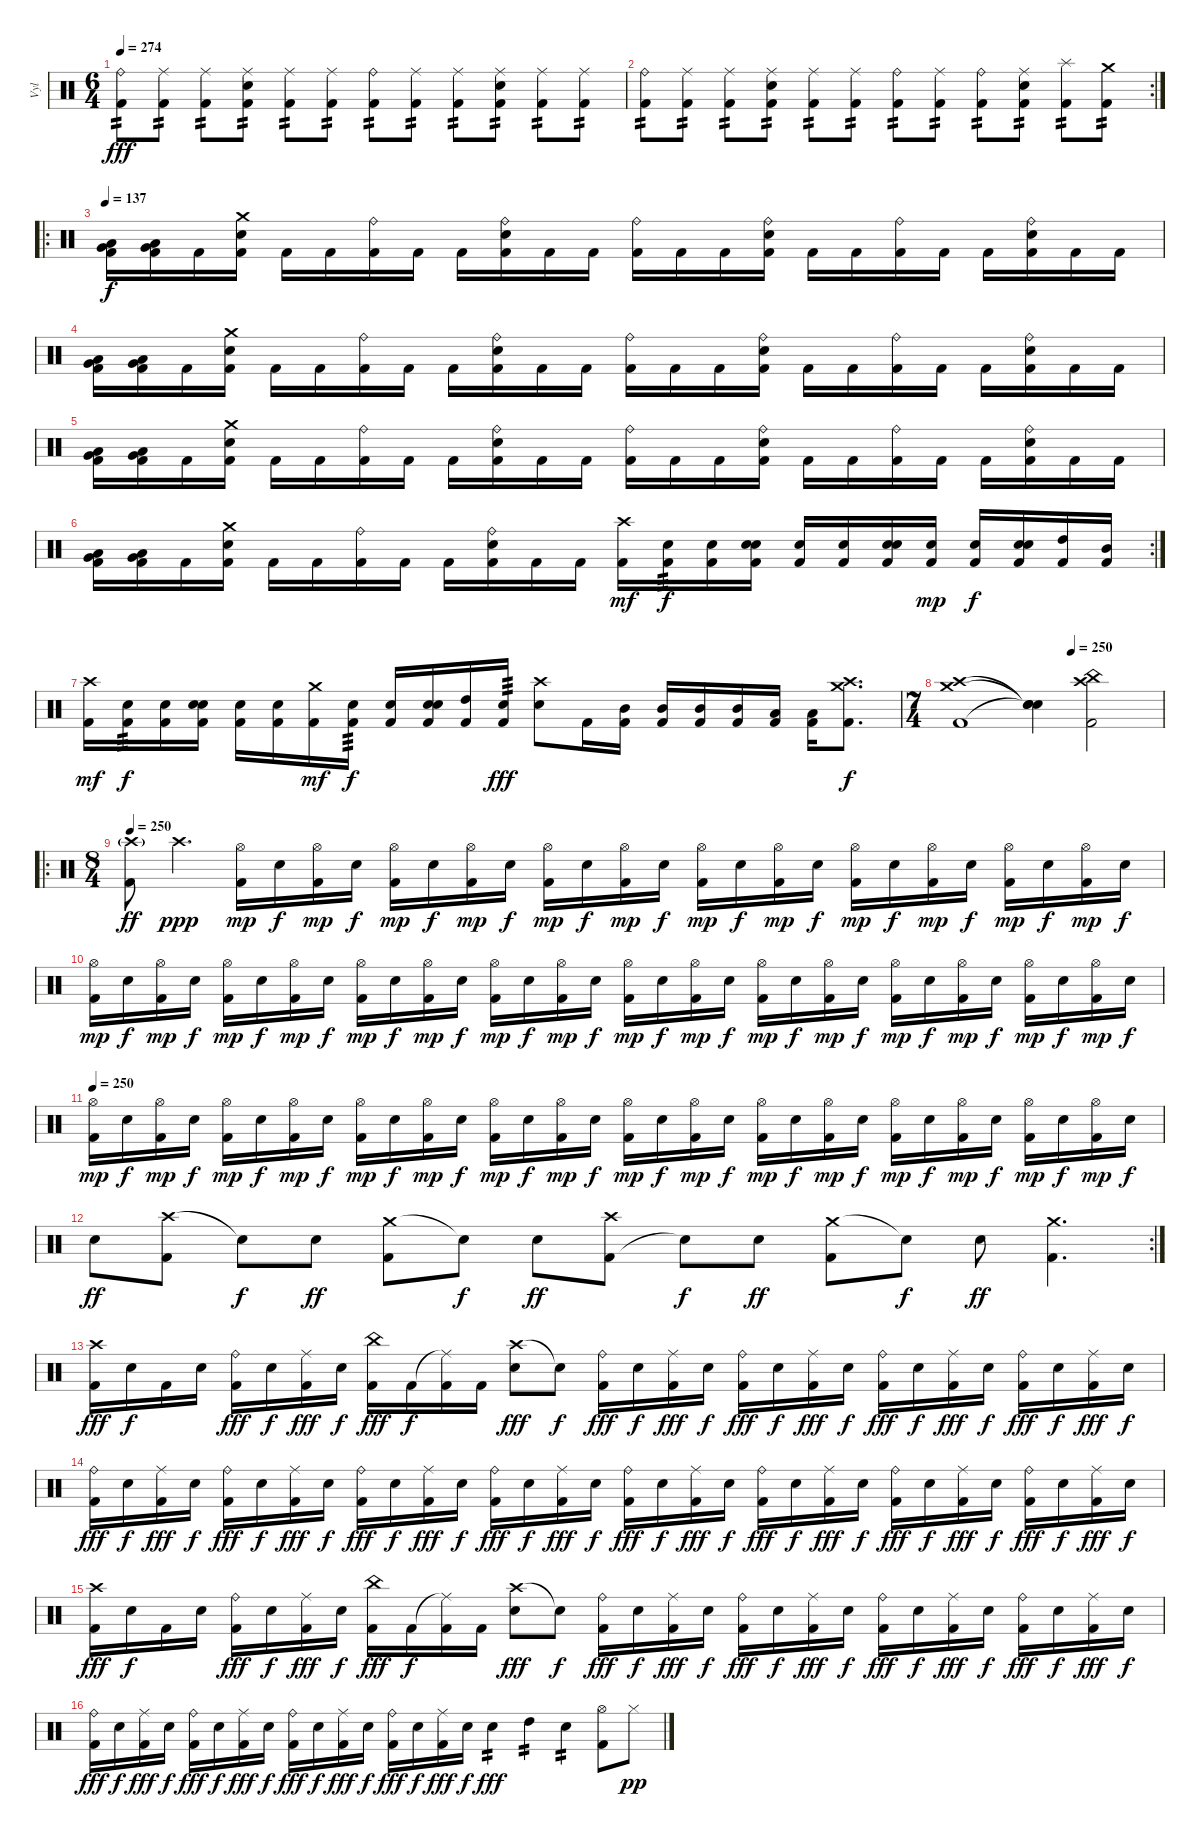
\track ("Vyl" "Vyl") {instrument percussion}
\staff {score}
\articulation defaults
\ts (6 4)
\tempo 274
\clef neutral
\ks c
("Ride (bell)" "Kick (hit) 2").8{tp 2 dy fff} ("Ride (middle)" "Kick (hit) 2").8{tp 2} ("Ride (middle)" "Kick (hit) 2").8{tp 2} ("Ride (middle)" "Snare (hit) 2" "Kick (hit) 2").8{tp 2} ("Ride (middle)" "Kick (hit) 2").8{tp 2} ("Ride (middle)" "Kick (hit) 2").8{tp 2} ("Ride (bell)" "Kick (hit) 2").8{tp 2} ("Ride (middle)" "Kick (hit) 2").8{tp 2} ("Ride (middle)" "Kick (hit) 2").8{tp 2} ("Ride (middle)" "Snare (hit) 2" "Kick (hit) 2").8{tp 2} ("Ride (middle)" "Kick (hit) 2").8{tp 2} ("Ride (middle)" "Kick (hit) 2").8{tp 2} |
\rc 2
("Ride (bell)" "Kick (hit) 2").8{tp 2} ("Ride (middle)" "Kick (hit) 2").8{tp 2} ("Ride (middle)" "Kick (hit) 2").8{tp 2} ("Ride (middle)" "Snare (hit) 2" "Kick (hit) 2").8{tp 2} ("Ride (middle)" "Kick (hit) 2").8{tp 2} ("Ride (middle)" "Kick (hit) 2").8{tp 2} ("Ride (bell)" "Kick (hit) 2").8{tp 2} ("Ride (middle)" "Kick (hit) 2").8{tp 2} ("Ride (bell)" "Kick (hit) 2").8{tp 2} ("Ride (middle)" "Snare (hit) 2" "Kick (hit) 2").8{tp 2} ("Splash (hit)" "Kick (hit) 2").8{tp 2} ("Crash medium (hit)" "Kick (hit) 2").8{tp 2} |
\ro
\tempo 137
("Low Tom (hit)" "Very Low Tom (hit)" "Kick (hit) 2").16{dy f} ("Low Tom (hit)" "Very Low Tom (hit)" "Kick (hit) 2").16 "Kick (hit) 2".16 ("Crash medium (hit)" "Snare (hit) 2" "Kick (hit) 2").16 "Kick (hit) 2".16 "Kick (hit) 2".16 ("Ride (bell)" "Kick (hit) 2").16 "Kick (hit) 2".16 "Kick (hit) 2".16 ("Ride (bell)" "Snare (hit) 2" "Kick (hit) 2").16 "Kick (hit) 2".16 "Kick (hit) 2".16 ("Ride (bell)" "Kick (hit) 2").16 "Kick (hit) 2".16 "Kick (hit) 2".16 ("Ride (bell)" "Snare (hit) 2" "Kick (hit) 2").16 "Kick (hit) 2".16 "Kick (hit) 2".16 ("Ride (bell)" "Kick (hit) 2").16 "Kick (hit) 2".16 "Kick (hit) 2".16 ("Ride (bell)" "Snare (hit) 2" "Kick (hit) 2").16 "Kick (hit) 2".16 "Kick (hit) 2".16 |
("Low Tom (hit)" "Very Low Tom (hit)" "Kick (hit) 2").16 ("Low Tom (hit)" "Very Low Tom (hit)" "Kick (hit) 2").16 "Kick (hit) 2".16 ("Crash medium (hit)" "Snare (hit) 2" "Kick (hit) 2").16 "Kick (hit) 2".16 "Kick (hit) 2".16 ("Ride (bell)" "Kick (hit) 2").16 "Kick (hit) 2".16 "Kick (hit) 2".16 ("Ride (bell)" "Snare (hit) 2" "Kick (hit) 2").16 "Kick (hit) 2".16 "Kick (hit) 2".16 ("Ride (bell)" "Kick (hit) 2").16 "Kick (hit) 2".16 "Kick (hit) 2".16 ("Ride (bell)" "Snare (hit) 2" "Kick (hit) 2").16 "Kick (hit) 2".16 "Kick (hit) 2".16 ("Ride (bell)" "Kick (hit) 2").16 "Kick (hit) 2".16 "Kick (hit) 2".16 ("Ride (bell)" "Snare (hit) 2" "Kick (hit) 2").16 "Kick (hit) 2".16 "Kick (hit) 2".16 |
("Low Tom (hit)" "Very Low Tom (hit)" "Kick (hit) 2").16 ("Low Tom (hit)" "Very Low Tom (hit)" "Kick (hit) 2").16 "Kick (hit) 2".16 ("Crash medium (hit)" "Snare (hit) 2" "Kick (hit) 2").16 "Kick (hit) 2".16 "Kick (hit) 2".16 ("Ride (bell)" "Kick (hit) 2").16 "Kick (hit) 2".16 "Kick (hit) 2".16 ("Ride (bell)" "Snare (hit) 2" "Kick (hit) 2").16 "Kick (hit) 2".16 "Kick (hit) 2".16 ("Ride (bell)" "Kick (hit) 2").16 "Kick (hit) 2".16 "Kick (hit) 2".16 ("Ride (bell)" "Snare (hit) 2" "Kick (hit) 2").16 "Kick (hit) 2".16 "Kick (hit) 2".16 ("Ride (bell)" "Kick (hit) 2").16 "Kick (hit) 2".16 "Kick (hit) 2".16 ("Ride (bell)" "Snare (hit) 2" "Kick (hit) 2").16 "Kick (hit) 2".16 "Kick (hit) 2".16 |
\rc 2
("Low Tom (hit)" "Very Low Tom (hit)" "Kick (hit) 2").16 ("Low Tom (hit)" "Very Low Tom (hit)" "Kick (hit) 2").16 "Kick (hit) 2".16 ("Crash medium (hit)" "Snare (hit) 2" "Kick (hit) 2").16 "Kick (hit) 2".16 "Kick (hit) 2".16 ("Ride (bell)" "Kick (hit) 2").16 "Kick (hit) 2".16 "Kick (hit) 2".16 ("Ride (bell)" "Snare (hit) 2" "Kick (hit) 2").16 "Kick (hit) 2".16 "Kick (hit) 2".16 ("Crash high (hit)" "Kick (hit) 2").16{dy mf} ("Snare (hit) 2" "Kick (hit) 2").16{tp 3 dy f} ("Snare (hit) 2" "Kick (hit) 2").16 ("Snare (hit)" "Snare (hit) 2" "Kick (hit) 2").16 ("Snare (hit) 2" "Kick (hit) 2").16 ("Snare (hit) 2" "Kick (hit) 2").16 ("Snare (hit)" "Snare (hit) 2" "Kick (hit) 2").16 ("Snare (hit) 2" "Kick (hit) 2").16{dy mp} ("Snare (hit) 2" "Kick (hit) 2").16{dy f} ("Snare (hit)" "Snare (hit) 2" "Kick (hit) 2").16 ("High Tom (hit)" "Kick (hit) 2").16 ("Mid Tom (hit)" "Kick (hit) 2").16 |
("Crash high (hit)" "Kick (hit) 2").16{dy mf} ("Snare (hit) 2" "Kick (hit) 2").16{tp 3 dy f} ("Snare (hit) 2" "Kick (hit) 2").16 ("Snare (hit)" "Snare (hit) 2" "Kick (hit) 2").16 ("Snare (hit) 2" "Kick (hit) 2").16 ("Snare (hit) 2" "Kick (hit) 2").16 ("Crash medium (hit)" "Kick (hit) 2").16{dy mf} ("Snare (hit) 2" "Kick (hit) 2").16{tp 3 dy f} ("Snare (hit) 2" "Kick (hit) 2").16 ("Snare (hit)" "Snare (hit) 2" "Kick (hit) 2").16 ("High Tom (hit)" "Kick (hit) 2").16 ("Snare (hit)" "Kick (hit) 2").16{tp 3 dy fff} ("Crash high (hit)" "Snare (hit) 2").8 "Kick (hit) 2".16 ("Mid Tom (hit)" "Kick (hit) 2").16 ("Mid Tom (hit)" "Kick (hit) 2").16 ("Mid Tom (hit)" "Kick (hit) 2").16 ("Mid Tom (hit)" "Kick (hit) 2").16 ("Low Tom (hit)" "Kick (hit) 2").16 ("Low Tom (hit)" "Kick (hit) 2").16 ("Crash medium (hit)" "Crash high (hit)" "Kick (hit) 2").8{d dy f} |
\ts (7 4)
\tempo (250 0.5714285714285714)
("Crash medium (hit)" "Crash high (hit)" "Kick (hit) 2").1 ("Snare (hit)"{t} "Snare (hit)"{t} "Snare (hit)"{t}).4 ("China (hit)" "Crash high (hit)" "Kick (hit) 2").2 |
\ro
\ts (8 4)
\tempo 250
("Crash high (hit)"{g} "Kick (hit) 2").8{dy ff} "Crash high (hit)".4{d dy ppp} ("Hi-Hat (open)" "Kick (hit) 2").16{dy mp} "Snare (hit) 2".16{dy f} ("Hi-Hat (open)" "Kick (hit) 2").16{dy mp} "Snare (hit) 2".16{dy f} ("Hi-Hat (open)" "Kick (hit) 2").16{dy mp} "Snare (hit) 2".16{dy f} ("Hi-Hat (open)" "Kick (hit) 2").16{dy mp} "Snare (hit) 2".16{dy f} ("Hi-Hat (open)" "Kick (hit) 2").16{dy mp} "Snare (hit) 2".16{dy f} ("Hi-Hat (open)" "Kick (hit) 2").16{dy mp} "Snare (hit) 2".16{dy f} ("Hi-Hat (open)" "Kick (hit) 2").16{dy mp} "Snare (hit) 2".16{dy f} ("Hi-Hat (open)" "Kick (hit) 2").16{dy mp} "Snare (hit) 2".16{dy f} ("Hi-Hat (open)" "Kick (hit) 2").16{dy mp} "Snare (hit) 2".16{dy f} ("Hi-Hat (open)" "Kick (hit) 2").16{dy mp} "Snare (hit) 2".16{dy f} ("Hi-Hat (open)" "Kick (hit) 2").16{dy mp} "Snare (hit) 2".16{dy f} ("Hi-Hat (open)" "Kick (hit) 2").16{dy mp} "Snare (hit) 2".16{dy f} |
("Hi-Hat (open)" "Kick (hit) 2").16{dy mp} "Snare (hit) 2".16{dy f} ("Hi-Hat (open)" "Kick (hit) 2").16{dy mp} "Snare (hit) 2".16{dy f} ("Hi-Hat (open)" "Kick (hit) 2").16{dy mp} "Snare (hit) 2".16{dy f} ("Hi-Hat (open)" "Kick (hit) 2").16{dy mp} "Snare (hit) 2".16{dy f} ("Hi-Hat (open)" "Kick (hit) 2").16{dy mp} "Snare (hit) 2".16{dy f} ("Hi-Hat (open)" "Kick (hit) 2").16{dy mp} "Snare (hit) 2".16{dy f} ("Hi-Hat (open)" "Kick (hit) 2").16{dy mp} "Snare (hit) 2".16{dy f} ("Hi-Hat (open)" "Kick (hit) 2").16{dy mp} "Snare (hit) 2".16{dy f} ("Hi-Hat (open)" "Kick (hit) 2").16{dy mp} "Snare (hit) 2".16{dy f} ("Hi-Hat (open)" "Kick (hit) 2").16{dy mp} "Snare (hit) 2".16{dy f} ("Hi-Hat (open)" "Kick (hit) 2").16{dy mp} "Snare (hit) 2".16{dy f} ("Hi-Hat (open)" "Kick (hit) 2").16{dy mp} "Snare (hit) 2".16{dy f} ("Hi-Hat (open)" "Kick (hit) 2").16{dy mp} "Snare (hit) 2".16{dy f} ("Hi-Hat (open)" "Kick (hit) 2").16{dy mp} "Snare (hit) 2".16{dy f} ("Hi-Hat (open)" "Kick (hit) 2").16{dy mp} "Snare (hit) 2".16{dy f} ("Hi-Hat (open)" "Kick (hit) 2").16{dy mp} "Snare (hit) 2".16{dy f} |
\tempo 250
("Hi-Hat (open)" "Kick (hit) 2").16{dy mp} "Snare (hit) 2".16{dy f} ("Hi-Hat (open)" "Kick (hit) 2").16{dy mp} "Snare (hit) 2".16{dy f} ("Hi-Hat (open)" "Kick (hit) 2").16{dy mp} "Snare (hit) 2".16{dy f} ("Hi-Hat (open)" "Kick (hit) 2").16{dy mp} "Snare (hit) 2".16{dy f} ("Hi-Hat (open)" "Kick (hit) 2").16{dy mp} "Snare (hit) 2".16{dy f} ("Hi-Hat (open)" "Kick (hit) 2").16{dy mp} "Snare (hit) 2".16{dy f} ("Hi-Hat (open)" "Kick (hit) 2").16{dy mp} "Snare (hit) 2".16{dy f} ("Hi-Hat (open)" "Kick (hit) 2").16{dy mp} "Snare (hit) 2".16{dy f} ("Hi-Hat (open)" "Kick (hit) 2").16{dy mp} "Snare (hit) 2".16{dy f} ("Hi-Hat (open)" "Kick (hit) 2").16{dy mp} "Snare (hit) 2".16{dy f} ("Hi-Hat (open)" "Kick (hit) 2").16{dy mp} "Snare (hit) 2".16{dy f} ("Hi-Hat (open)" "Kick (hit) 2").16{dy mp} "Snare (hit) 2".16{dy f} ("Hi-Hat (open)" "Kick (hit) 2").16{dy mp} "Snare (hit) 2".16{dy f} ("Hi-Hat (open)" "Kick (hit) 2").16{dy mp} "Snare (hit) 2".16{dy f} ("Hi-Hat (open)" "Kick (hit) 2").16{dy mp} "Snare (hit) 2".16{dy f} ("Hi-Hat (open)" "Kick (hit) 2").16{dy mp} "Snare (hit) 2".16{dy f} |
\rc 2 "Snare (hit) 2".8{dy ff}
("Crash high (hit)" "Kick (hit) 2").8 "Snare (hit)"{t}.8{dy f} "Snare (hit) 2".8{dy ff} ("Crash medium (hit)" "Kick (hit) 2").8 "Snare (hit)"{t}.8{dy f} "Snare (hit) 2".8{dy ff} ("Kick (hit) 2" "Crash high (hit)").8 "Snare (hit)"{t}.8{dy f} "Snare (hit) 2".8{dy ff} ("Crash medium (hit)" "Kick (hit) 2").8 "Snare (hit) 2"{t}.8{dy f} "Snare (hit) 2".8{dy ff} ("Kick (hit) 2" "Crash medium (hit)").4{d} |
("Crash high (hit)" "Kick (hit) 2").16{dy fff} "Snare (hit) 2".16{dy f} "Kick (hit) 2".16 "Snare (hit) 2".16 ("Ride (bell)" "Kick (hit) 2").16{dy fff} "Snare (hit) 2".16{dy f} ("Ride (middle)" "Kick (hit) 2").16{dy fff} "Snare (hit) 2".16{dy f} ("China (hit)" "Kick (hit) 2").16{dy fff} "Kick (hit) 2".16{dy f} ("Ride (middle)"{t} "Kick (hit) 2").16 "Kick (hit) 2".16 ("Crash high (hit)" "Snare (hit) 2").8{dy fff} "Snare (hit) 2"{t}.8{dy f} ("Ride (bell)" "Kick (hit) 2").16{dy fff} "Snare (hit) 2".16{dy f} ("Ride (middle)" "Kick (hit) 2").16{dy fff} "Snare (hit) 2".16{dy f} ("Ride (bell)" "Kick (hit) 2").16{dy fff} "Snare (hit) 2".16{dy f} ("Ride (middle)" "Kick (hit) 2").16{dy fff} "Snare (hit) 2".16{dy f} ("Ride (bell)" "Kick (hit) 2").16{dy fff} "Snare (hit) 2".16{dy f} ("Ride (middle)" "Kick (hit) 2").16{dy fff} "Snare (hit) 2".16{dy f} ("Ride (bell)" "Kick (hit) 2").16{dy fff} "Snare (hit) 2".16{dy f} ("Ride (middle)" "Kick (hit) 2").16{dy fff} "Snare (hit) 2".16{dy f} |
("Ride (bell)" "Kick (hit) 2").16{dy fff} "Snare (hit) 2".16{dy f} ("Ride (middle)" "Kick (hit) 2").16{dy fff} "Snare (hit) 2".16{dy f} ("Ride (bell)" "Kick (hit) 2").16{dy fff} "Snare (hit) 2".16{dy f} ("Ride (middle)" "Kick (hit) 2").16{dy fff} "Snare (hit) 2".16{dy f} ("Ride (bell)" "Kick (hit) 2").16{dy fff} "Snare (hit) 2".16{dy f} ("Ride (middle)" "Kick (hit) 2").16{dy fff} "Snare (hit) 2".16{dy f} ("Ride (bell)" "Kick (hit) 2").16{dy fff} "Snare (hit) 2".16{dy f} ("Ride (middle)" "Kick (hit) 2").16{dy fff} "Snare (hit) 2".16{dy f} ("Ride (bell)" "Kick (hit) 2").16{dy fff} "Snare (hit) 2".16{dy f} ("Ride (middle)" "Kick (hit) 2").16{dy fff} "Snare (hit) 2".16{dy f} ("Ride (bell)" "Kick (hit) 2").16{dy fff} "Snare (hit) 2".16{dy f} ("Ride (middle)" "Kick (hit) 2").16{dy fff} "Snare (hit) 2".16{dy f} ("Ride (bell)" "Kick (hit) 2").16{dy fff} "Snare (hit) 2".16{dy f} ("Ride (middle)" "Kick (hit) 2").16{dy fff} "Snare (hit) 2".16{dy f} ("Ride (bell)" "Kick (hit) 2").16{dy fff} "Snare (hit) 2".16{dy f} ("Ride (middle)" "Kick (hit) 2").16{dy fff} "Snare (hit) 2".16{dy f} |
("Crash high (hit)" "Kick (hit) 2").16{dy fff} "Snare (hit) 2".16{dy f} "Kick (hit) 2".16 "Snare (hit) 2".16 ("Ride (bell)" "Kick (hit) 2").16{dy fff} "Snare (hit) 2".16{dy f} ("Ride (middle)" "Kick (hit) 2").16{dy fff} "Snare (hit) 2".16{dy f} ("China (hit)" "Kick (hit) 2").16{dy fff} "Kick (hit) 2".16{dy f} ("Ride (middle)"{t} "Kick (hit) 2").16 "Kick (hit) 2".16 ("Crash high (hit)" "Snare (hit) 2").8{dy fff} "Snare (hit) 2"{t}.8{dy f} ("Ride (bell)" "Kick (hit) 2").16{dy fff} "Snare (hit) 2".16{dy f} ("Ride (middle)" "Kick (hit) 2").16{dy fff} "Snare (hit) 2".16{dy f} ("Ride (bell)" "Kick (hit) 2").16{dy fff} "Snare (hit) 2".16{dy f} ("Ride (middle)" "Kick (hit) 2").16{dy fff} "Snare (hit) 2".16{dy f} ("Ride (bell)" "Kick (hit) 2").16{dy fff} "Snare (hit) 2".16{dy f} ("Ride (middle)" "Kick (hit) 2").16{dy fff} "Snare (hit) 2".16{dy f} ("Ride (bell)" "Kick (hit) 2").16{dy fff} "Snare (hit) 2".16{dy f} ("Ride (middle)" "Kick (hit) 2").16{dy fff} "Snare (hit) 2".16{dy f} |
("Ride (bell)" "Kick (hit) 2").16{dy fff} "Snare (hit) 2".16{dy f} ("Ride (middle)" "Kick (hit) 2").16{dy fff} "Snare (hit) 2".16{dy f} ("Ride (bell)" "Kick (hit) 2").16{dy fff} "Snare (hit) 2".16{dy f} ("Ride (middle)" "Kick (hit) 2").16{dy fff} "Snare (hit) 2".16{dy f} ("Ride (bell)" "Kick (hit) 2").16{dy fff} "Snare (hit) 2".16{dy f} ("Ride (middle)" "Kick (hit) 2").16{dy fff} "Snare (hit) 2".16{dy f} ("Ride (bell)" "Kick (hit) 2").16{dy fff} "Snare (hit) 2".16{dy f} ("Ride (middle)" "Kick (hit) 2").16{dy fff} "Snare (hit) 2".16{dy f} "Snare (hit) 2".4{tp 2 dy fff} "High Tom (hit)".4{tp 2} "Snare (hit) 2".4{tp 2} ("Hi-Hat (open)" "Kick (hit) 2").8 "Hi-Hat (closed)".8{dy pp}
